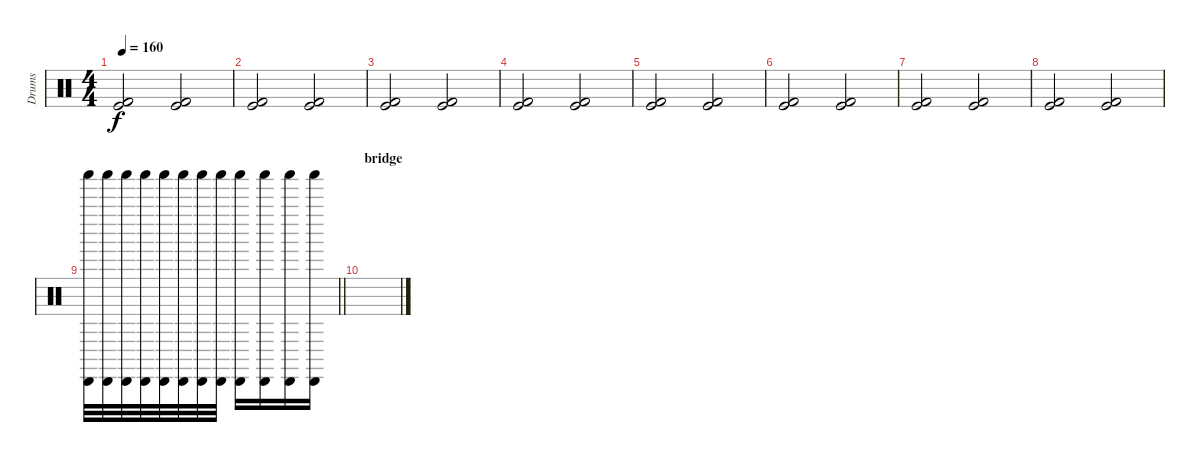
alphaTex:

\track ("Drums" "Drums") {instrument percussion}
\staff {score}
\articulation defaults
\ts (4 4)
\tempo 160
\clef neutral
\ks c
("Kick (hit)" "Kick (hit) 2").2{dy f} ("Kick (hit)" "Kick (hit) 2").2 |
("Kick (hit)" "Kick (hit) 2").2 ("Kick (hit)" "Kick (hit) 2").2 |
("Kick (hit)" "Kick (hit) 2").2 ("Kick (hit)" "Kick (hit) 2").2 |
("Kick (hit)" "Kick (hit) 2").2 ("Kick (hit)" "Kick (hit) 2").2 |
("Kick (hit)" "Kick (hit) 2").2 ("Kick (hit)" "Kick (hit) 2").2 |
("Kick (hit)" "Kick (hit) 2").2 ("Kick (hit)" "Kick (hit) 2").2 |
("Kick (hit)" "Kick (hit) 2").2 ("Kick (hit)" "Kick (hit) 2").2 |
("Kick (hit)" "Kick (hit) 2").2 ("Kick (hit)" "Kick (hit) 2").2 |
\barLineRight lightlight
("Cabasa (hit)" "Shaker (hit)").32 ("Cabasa (hit)" "Shaker (hit)").32 ("Cabasa (hit)" "Shaker (hit)").32 ("Cabasa (hit)" "Shaker (hit)").32 ("Cabasa (hit)" "Shaker (hit)").32 ("Cabasa (hit)" "Shaker (hit)").32 ("Cabasa (hit)" "Shaker (hit)").32 ("Cabasa (hit)" "Shaker (hit)").32 ("Cabasa (hit)" "Shaker (hit)").16 ("Cabasa (hit)" "Shaker (hit)").16 ("Cabasa (hit)" "Shaker (hit)").16 ("Cabasa (hit)" "Shaker (hit)").16 |
\section ("" "bridge")
